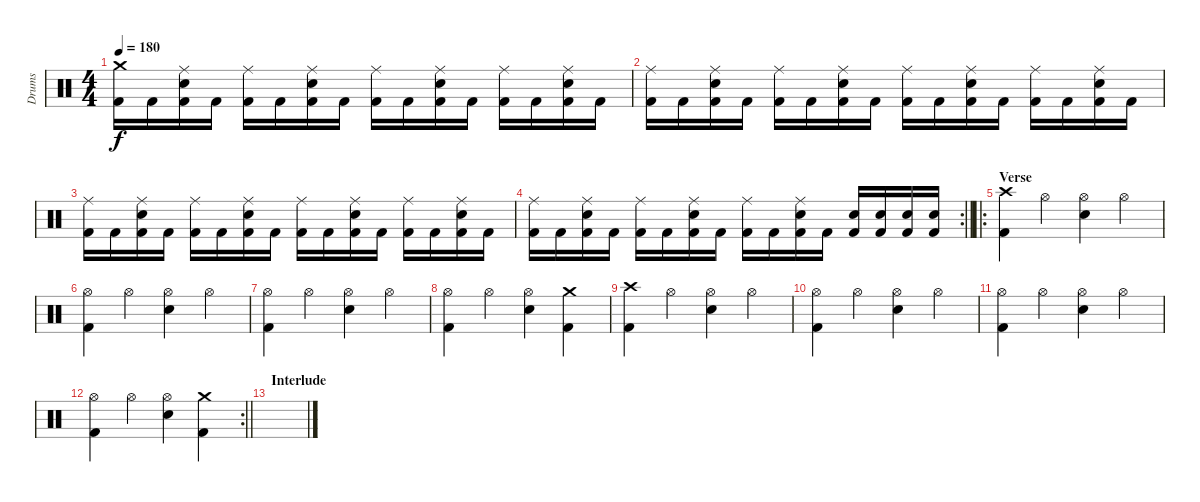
\track ("Drums" "Drums") {instrument percussion}
\staff {score}
\articulation defaults
\ts (4 4)
\tempo 180
\clef neutral
\ks c
("Crash medium (hit)" "Kick (hit) 2").16{dy f} "Kick (hit) 2".16 ("Ride (middle)" "Electric Snare (hit)" "Kick (hit) 2").16 "Kick (hit) 2".16 ("Ride (middle)" "Kick (hit) 2").16 "Kick (hit) 2".16 ("Ride (middle)" "Electric Snare (hit)" "Kick (hit) 2").16 "Kick (hit) 2".16 ("Ride (middle)" "Kick (hit) 2").16 "Kick (hit) 2".16 ("Ride (middle)" "Electric Snare (hit)" "Kick (hit) 2").16 "Kick (hit) 2".16 ("Ride (middle)" "Kick (hit) 2").16 "Kick (hit) 2".16 ("Ride (middle)" "Electric Snare (hit)" "Kick (hit) 2").16 "Kick (hit) 2".16 |
("Ride (middle)" "Kick (hit) 2").16 "Kick (hit) 2".16 ("Ride (middle)" "Electric Snare (hit)" "Kick (hit) 2").16 "Kick (hit) 2".16 ("Ride (middle)" "Kick (hit) 2").16 "Kick (hit) 2".16 ("Ride (middle)" "Electric Snare (hit)" "Kick (hit) 2").16 "Kick (hit) 2".16 ("Ride (middle)" "Kick (hit) 2").16 "Kick (hit) 2".16 ("Ride (middle)" "Electric Snare (hit)" "Kick (hit) 2").16 "Kick (hit) 2".16 ("Ride (middle)" "Kick (hit) 2").16 "Kick (hit) 2".16 ("Ride (middle)" "Electric Snare (hit)" "Kick (hit) 2").16 "Kick (hit) 2".16 |
("Ride (middle)" "Kick (hit) 2").16 "Kick (hit) 2".16 ("Ride (middle)" "Electric Snare (hit)" "Kick (hit) 2").16 "Kick (hit) 2".16 ("Ride (middle)" "Kick (hit) 2").16 "Kick (hit) 2".16 ("Ride (middle)" "Electric Snare (hit)" "Kick (hit) 2").16 "Kick (hit) 2".16 ("Ride (middle)" "Kick (hit) 2").16 "Kick (hit) 2".16 ("Ride (middle)" "Electric Snare (hit)" "Kick (hit) 2").16 "Kick (hit) 2".16 ("Ride (middle)" "Kick (hit) 2").16 "Kick (hit) 2".16 ("Ride (middle)" "Electric Snare (hit)" "Kick (hit) 2").16 "Kick (hit) 2".16 |
\rc 2
\barLineRight lightlight
("Ride (middle)" "Kick (hit) 2").16 "Kick (hit) 2".16 ("Ride (middle)" "Electric Snare (hit)" "Kick (hit) 2").16 "Kick (hit) 2".16 ("Ride (middle)" "Kick (hit) 2").16 "Kick (hit) 2".16 ("Ride (middle)" "Electric Snare (hit)" "Kick (hit) 2").16 "Kick (hit) 2".16 ("Ride (middle)" "Kick (hit) 2").16 "Kick (hit) 2".16 ("Ride (middle)" "Electric Snare (hit)" "Kick (hit) 2").16 "Kick (hit) 2".16 ("Electric Snare (hit)" "Kick (hit) 2").16 ("Electric Snare (hit)" "Kick (hit) 2").16 ("Electric Snare (hit)" "Kick (hit) 2").16 ("Electric Snare (hit)" "Kick (hit) 2").16 |
\ro
\section ("" "Verse")
("Crash high (hit)" "Kick (hit) 2").4 "Hi-Hat (open)".4 ("Hi-Hat (open)" "Electric Snare (hit)").4 "Hi-Hat (open)".4 |
("Hi-Hat (open)" "Kick (hit) 2").4 "Hi-Hat (open)".4 ("Hi-Hat (open)" "Electric Snare (hit)").4 "Hi-Hat (open)".4 |
("Hi-Hat (open)" "Kick (hit) 2").4 "Hi-Hat (open)".4 ("Hi-Hat (open)" "Electric Snare (hit)").4 "Hi-Hat (open)".4 |
("Hi-Hat (open)" "Kick (hit) 2").4 "Hi-Hat (open)".4 ("Hi-Hat (open)" "Electric Snare (hit)").4 ("Crash medium (hit)" "Kick (hit) 2").4 |
("Crash high (hit)" "Kick (hit) 2").4 "Hi-Hat (open)".4 ("Hi-Hat (open)" "Electric Snare (hit)").4 "Hi-Hat (open)".4 |
("Hi-Hat (open)" "Kick (hit) 2").4 "Hi-Hat (open)".4 ("Hi-Hat (open)" "Electric Snare (hit)").4 "Hi-Hat (open)".4 |
("Hi-Hat (open)" "Kick (hit) 2").4 "Hi-Hat (open)".4 ("Hi-Hat (open)" "Electric Snare (hit)").4 "Hi-Hat (open)".4 |
\rc 2
\barLineRight lightlight
("Hi-Hat (open)" "Kick (hit) 2").4 "Hi-Hat (open)".4 ("Hi-Hat (open)" "Electric Snare (hit)").4 ("Crash medium (hit)" "Kick (hit) 2").4 |
\section ("" "Interlude")
